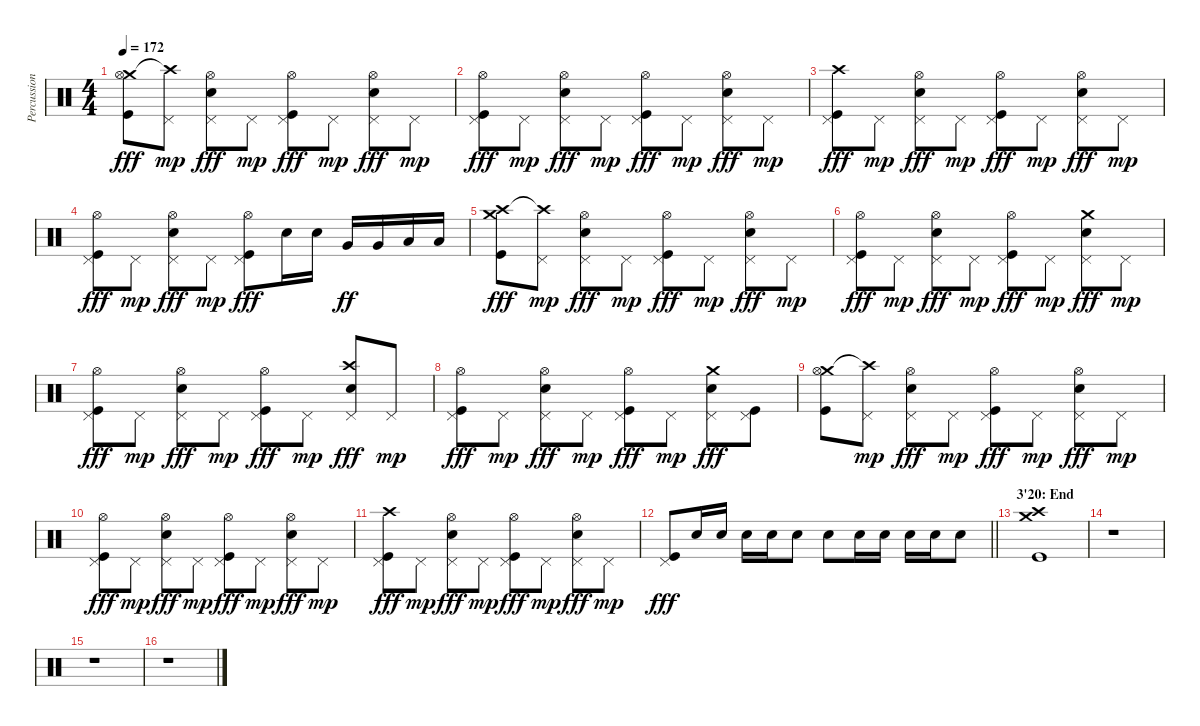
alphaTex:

\track ("Percussion" "Percussion") {instrument percussion}
\staff {score}
\articulation defaults
\ts (4 4)
\tempo 172
\clef neutral
\ks c
("Crash medium (hit)" "Hi-Hat (open)" "Kick (hit)").8{dy fff} ("Pedal Hi-Hat (hit)" "Crash high (hit)"{t}).8{dy mp} ("Pedal Hi-Hat (hit)" "Hi-Hat (open)" "Electric Snare (hit)").8{dy fff} "Pedal Hi-Hat (hit)".8{dy mp} ("Pedal Hi-Hat (hit)" "Hi-Hat (open)" "Kick (hit)").8{dy fff} "Pedal Hi-Hat (hit)".8{dy mp} ("Pedal Hi-Hat (hit)" "Hi-Hat (open)" "Electric Snare (hit)").8{dy fff} "Pedal Hi-Hat (hit)".8{dy mp} |
("Pedal Hi-Hat (hit)" "Hi-Hat (open)" "Kick (hit)").8{dy fff} "Pedal Hi-Hat (hit)".8{dy mp} ("Pedal Hi-Hat (hit)" "Hi-Hat (open)" "Electric Snare (hit)").8{dy fff} "Pedal Hi-Hat (hit)".8{dy mp} ("Pedal Hi-Hat (hit)" "Hi-Hat (open)" "Kick (hit)").8{dy fff} "Pedal Hi-Hat (hit)".8{dy mp} ("Pedal Hi-Hat (hit)" "Hi-Hat (open)" "Electric Snare (hit)").8{dy fff} "Pedal Hi-Hat (hit)".8{dy mp} |
("Pedal Hi-Hat (hit)" "Crash high (hit)" "Kick (hit)").8{dy fff} "Pedal Hi-Hat (hit)".8{dy mp} ("Pedal Hi-Hat (hit)" "Hi-Hat (open)" "Electric Snare (hit)").8{dy fff} "Pedal Hi-Hat (hit)".8{dy mp} ("Pedal Hi-Hat (hit)" "Hi-Hat (open)" "Kick (hit)").8{dy fff} "Pedal Hi-Hat (hit)".8{dy mp} ("Pedal Hi-Hat (hit)" "Hi-Hat (open)" "Electric Snare (hit)").8{dy fff} "Pedal Hi-Hat (hit)".8{dy mp} |
("Pedal Hi-Hat (hit)" "Hi-Hat (open)" "Kick (hit)").8{dy fff} "Pedal Hi-Hat (hit)".8{dy mp} ("Pedal Hi-Hat (hit)" "Hi-Hat (open)" "Electric Snare (hit)").8{dy fff} "Pedal Hi-Hat (hit)".8{dy mp} ("Pedal Hi-Hat (hit)" "Hi-Hat (open)" "Kick (hit)").8{dy fff} "Electric Snare (hit)".16 "Electric Snare (hit)".16 "Very Low Tom (hit)".16{dy ff} "Very Low Tom (hit)".16 "Low Floor Tom (hit)".16 "Low Floor Tom (hit)".16 |
("Crash medium (hit)" "Crash high (hit)" "Kick (hit)").8{dy fff} ("Pedal Hi-Hat (hit)" "Crash high (hit)"{t}).8{dy mp} ("Pedal Hi-Hat (hit)" "Hi-Hat (open)" "Electric Snare (hit)").8{dy fff} "Pedal Hi-Hat (hit)".8{dy mp} ("Pedal Hi-Hat (hit)" "Hi-Hat (open)" "Kick (hit)").8{dy fff} "Pedal Hi-Hat (hit)".8{dy mp} ("Pedal Hi-Hat (hit)" "Hi-Hat (open)" "Electric Snare (hit)").8{dy fff} "Pedal Hi-Hat (hit)".8{dy mp} |
("Pedal Hi-Hat (hit)" "Hi-Hat (open)" "Kick (hit)").8{dy fff} "Pedal Hi-Hat (hit)".8{dy mp} ("Pedal Hi-Hat (hit)" "Hi-Hat (open)" "Electric Snare (hit)").8{dy fff} "Pedal Hi-Hat (hit)".8{dy mp} ("Pedal Hi-Hat (hit)" "Hi-Hat (open)" "Kick (hit)").8{dy fff} "Pedal Hi-Hat (hit)".8{dy mp} ("Pedal Hi-Hat (hit)" "Crash medium (hit)" "Electric Snare (hit)").8{dy fff} "Pedal Hi-Hat (hit)".8{dy mp} |
("Pedal Hi-Hat (hit)" "Hi-Hat (open)" "Kick (hit)").8{dy fff} "Pedal Hi-Hat (hit)".8{dy mp} ("Pedal Hi-Hat (hit)" "Hi-Hat (open)" "Electric Snare (hit)").8{dy fff} "Pedal Hi-Hat (hit)".8{dy mp} ("Pedal Hi-Hat (hit)" "Hi-Hat (open)" "Kick (hit)").8{dy fff} "Pedal Hi-Hat (hit)".8{dy mp} ("Pedal Hi-Hat (hit)" "Crash high (hit)" "Electric Snare (hit)").8{dy fff} "Pedal Hi-Hat (hit)".8{dy mp} |
("Pedal Hi-Hat (hit)" "Hi-Hat (open)" "Kick (hit)").8{dy fff} "Pedal Hi-Hat (hit)".8{dy mp} ("Pedal Hi-Hat (hit)" "Hi-Hat (open)" "Electric Snare (hit)").8{dy fff} "Pedal Hi-Hat (hit)".8{dy mp} ("Pedal Hi-Hat (hit)" "Hi-Hat (open)" "Kick (hit)").8{dy fff} "Pedal Hi-Hat (hit)".8{dy mp} ("Pedal Hi-Hat (hit)" "Crash medium (hit)" "Electric Snare (hit)").8{dy fff} ("Pedal Hi-Hat (hit)" "Kick (hit)").8 |
("Crash medium (hit)" "Hi-Hat (open)" "Kick (hit)").8 ("Pedal Hi-Hat (hit)" "Crash high (hit)"{t}).8{dy mp} ("Pedal Hi-Hat (hit)" "Hi-Hat (open)" "Electric Snare (hit)").8{dy fff} "Pedal Hi-Hat (hit)".8{dy mp} ("Pedal Hi-Hat (hit)" "Hi-Hat (open)" "Kick (hit)").8{dy fff} "Pedal Hi-Hat (hit)".8{dy mp} ("Pedal Hi-Hat (hit)" "Hi-Hat (open)" "Electric Snare (hit)").8{dy fff} "Pedal Hi-Hat (hit)".8{dy mp} |
("Pedal Hi-Hat (hit)" "Hi-Hat (open)" "Kick (hit)").8{dy fff} "Pedal Hi-Hat (hit)".8{dy mp} ("Pedal Hi-Hat (hit)" "Hi-Hat (open)" "Electric Snare (hit)").8{dy fff} "Pedal Hi-Hat (hit)".8{dy mp} ("Pedal Hi-Hat (hit)" "Hi-Hat (open)" "Kick (hit)").8{dy fff} "Pedal Hi-Hat (hit)".8{dy mp} ("Pedal Hi-Hat (hit)" "Hi-Hat (open)" "Electric Snare (hit)").8{dy fff} "Pedal Hi-Hat (hit)".8{dy mp} |
("Pedal Hi-Hat (hit)" "Crash high (hit)" "Kick (hit)").8{dy fff} "Pedal Hi-Hat (hit)".8{dy mp} ("Pedal Hi-Hat (hit)" "Hi-Hat (open)" "Electric Snare (hit)").8{dy fff} "Pedal Hi-Hat (hit)".8{dy mp} ("Pedal Hi-Hat (hit)" "Hi-Hat (open)" "Kick (hit)").8{dy fff} "Pedal Hi-Hat (hit)".8{dy mp} ("Pedal Hi-Hat (hit)" "Hi-Hat (open)" "Electric Snare (hit)").8{dy fff} "Pedal Hi-Hat (hit)".8{dy mp} |
\barLineRight lightlight
("Pedal Hi-Hat (hit)" "Kick (hit)").8{dy fff} "Electric Snare (hit)".16 "Electric Snare (hit)".16 "Electric Snare (hit)".16 "Electric Snare (hit)".16 "Electric Snare (hit)".8 "Electric Snare (hit)".8 "Electric Snare (hit)".16 "Electric Snare (hit)".16 "Electric Snare (hit)".16 "Electric Snare (hit)".16 "Electric Snare (hit)".8 |
\section ("" "3'20: End")
("Crash medium (hit)" "Crash high (hit)" "Kick (hit)").1 |
r.1 |
r.1 |
r.1
